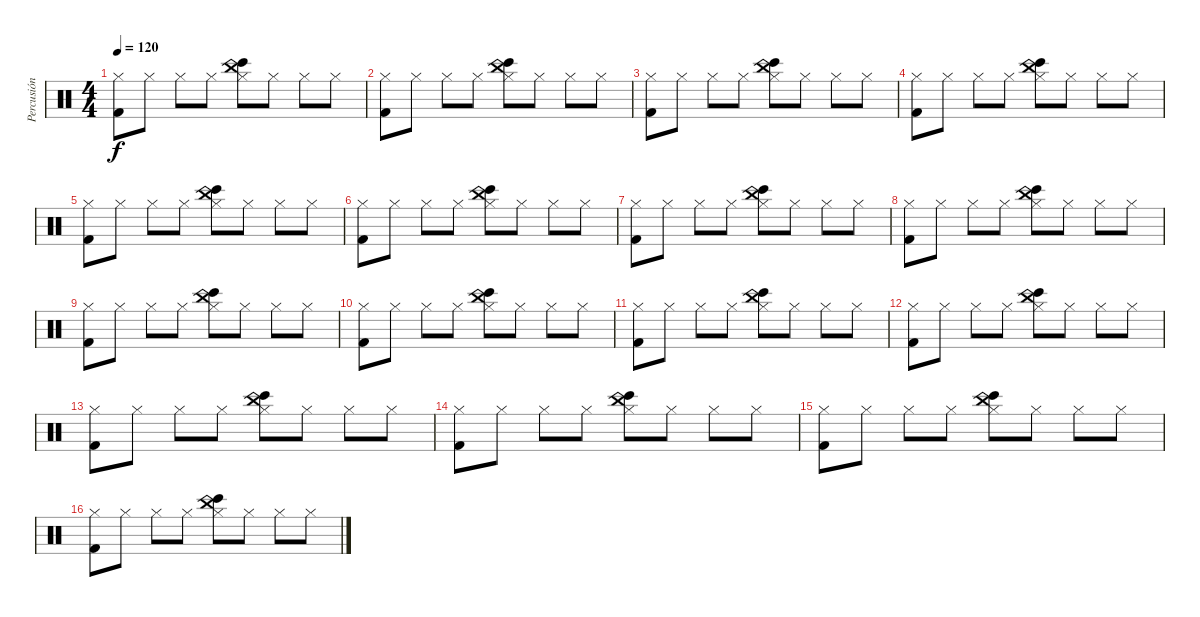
\track ("Percusión" "Percusión") {instrument percussion}
\staff {score}
\articulation defaults
\ts (4 4)
\tempo 120
\clef neutral
\ks c
("Hi-Hat (closed)" "Kick (hit) 2").8{dy f} "Hi-Hat (closed)".8 "Hi-Hat (closed)".8 "Hi-Hat (closed)".8 ("Hi-Hat (closed)" "Bongo High (hit)" "China (hit)").8 "Hi-Hat (closed)".8 "Hi-Hat (closed)".8 "Hi-Hat (closed)".8 |
("Hi-Hat (closed)" "Kick (hit) 2").8 "Hi-Hat (closed)".8 "Hi-Hat (closed)".8 "Hi-Hat (closed)".8 ("Hi-Hat (closed)" "Bongo High (hit)" "China (hit)").8 "Hi-Hat (closed)".8 "Hi-Hat (closed)".8 "Hi-Hat (closed)".8 |
("Hi-Hat (closed)" "Kick (hit) 2").8 "Hi-Hat (closed)".8 "Hi-Hat (closed)".8 "Hi-Hat (closed)".8 ("Hi-Hat (closed)" "Bongo High (hit)" "China (hit)").8 "Hi-Hat (closed)".8 "Hi-Hat (closed)".8 "Hi-Hat (closed)".8 |
("Hi-Hat (closed)" "Kick (hit) 2").8 "Hi-Hat (closed)".8 "Hi-Hat (closed)".8 "Hi-Hat (closed)".8 ("Hi-Hat (closed)" "Bongo High (hit)" "China (hit)").8 "Hi-Hat (closed)".8 "Hi-Hat (closed)".8 "Hi-Hat (closed)".8 |
("Hi-Hat (closed)" "Kick (hit) 2").8 "Hi-Hat (closed)".8 "Hi-Hat (closed)".8 "Hi-Hat (closed)".8 ("Hi-Hat (closed)" "Bongo High (hit)" "China (hit)").8 "Hi-Hat (closed)".8 "Hi-Hat (closed)".8 "Hi-Hat (closed)".8 |
("Hi-Hat (closed)" "Kick (hit) 2").8 "Hi-Hat (closed)".8 "Hi-Hat (closed)".8 "Hi-Hat (closed)".8 ("Hi-Hat (closed)" "Bongo High (hit)" "China (hit)").8 "Hi-Hat (closed)".8 "Hi-Hat (closed)".8 "Hi-Hat (closed)".8 |
("Hi-Hat (closed)" "Kick (hit) 2").8 "Hi-Hat (closed)".8 "Hi-Hat (closed)".8 "Hi-Hat (closed)".8 ("Hi-Hat (closed)" "Bongo High (hit)" "China (hit)").8 "Hi-Hat (closed)".8 "Hi-Hat (closed)".8 "Hi-Hat (closed)".8 |
("Hi-Hat (closed)" "Kick (hit) 2").8 "Hi-Hat (closed)".8 "Hi-Hat (closed)".8 "Hi-Hat (closed)".8 ("Hi-Hat (closed)" "Bongo High (hit)" "China (hit)").8 "Hi-Hat (closed)".8 "Hi-Hat (closed)".8 "Hi-Hat (closed)".8 |
("Hi-Hat (closed)" "Kick (hit) 2").8 "Hi-Hat (closed)".8 "Hi-Hat (closed)".8 "Hi-Hat (closed)".8 ("Hi-Hat (closed)" "Bongo High (hit)" "China (hit)").8 "Hi-Hat (closed)".8 "Hi-Hat (closed)".8 "Hi-Hat (closed)".8 |
("Hi-Hat (closed)" "Kick (hit) 2").8 "Hi-Hat (closed)".8 "Hi-Hat (closed)".8 "Hi-Hat (closed)".8 ("Hi-Hat (closed)" "Bongo High (hit)" "China (hit)").8 "Hi-Hat (closed)".8 "Hi-Hat (closed)".8 "Hi-Hat (closed)".8 |
("Hi-Hat (closed)" "Kick (hit) 2").8 "Hi-Hat (closed)".8 "Hi-Hat (closed)".8 "Hi-Hat (closed)".8 ("Hi-Hat (closed)" "Bongo High (hit)" "China (hit)").8 "Hi-Hat (closed)".8 "Hi-Hat (closed)".8 "Hi-Hat (closed)".8 |
("Hi-Hat (closed)" "Kick (hit) 2").8 "Hi-Hat (closed)".8 "Hi-Hat (closed)".8 "Hi-Hat (closed)".8 ("Hi-Hat (closed)" "Bongo High (hit)" "China (hit)").8 "Hi-Hat (closed)".8 "Hi-Hat (closed)".8 "Hi-Hat (closed)".8 |
("Hi-Hat (closed)" "Kick (hit) 2").8 "Hi-Hat (closed)".8 "Hi-Hat (closed)".8 "Hi-Hat (closed)".8 ("Hi-Hat (closed)" "Bongo High (hit)" "China (hit)").8 "Hi-Hat (closed)".8 "Hi-Hat (closed)".8 "Hi-Hat (closed)".8 |
("Hi-Hat (closed)" "Kick (hit) 2").8 "Hi-Hat (closed)".8 "Hi-Hat (closed)".8 "Hi-Hat (closed)".8 ("Hi-Hat (closed)" "Bongo High (hit)" "China (hit)").8 "Hi-Hat (closed)".8 "Hi-Hat (closed)".8 "Hi-Hat (closed)".8 |
("Hi-Hat (closed)" "Kick (hit) 2").8 "Hi-Hat (closed)".8 "Hi-Hat (closed)".8 "Hi-Hat (closed)".8 ("Hi-Hat (closed)" "Bongo High (hit)" "China (hit)").8 "Hi-Hat (closed)".8 "Hi-Hat (closed)".8 "Hi-Hat (closed)".8 |
("Hi-Hat (closed)" "Kick (hit) 2").8 "Hi-Hat (closed)".8 "Hi-Hat (closed)".8 "Hi-Hat (closed)".8 ("Hi-Hat (closed)" "Bongo High (hit)" "China (hit)").8 "Hi-Hat (closed)".8 "Hi-Hat (closed)".8 "Hi-Hat (closed)".8
